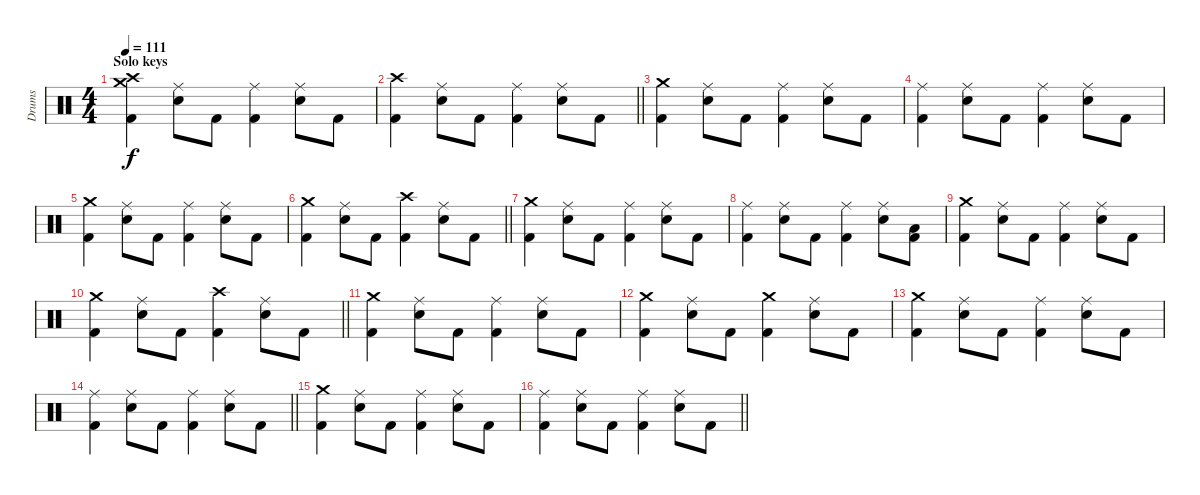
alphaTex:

\track ("Drums" "Drums") {instrument percussion}
\staff {score}
\articulation defaults
\ts (4 4)
\section ("" "Solo keys")
\tempo 111
\clef neutral
\ks c
("Crash medium (hit)" "Crash high (hit)" "Kick (hit) 2").4{dy f} ("Ride (middle)" "Electric Snare (hit)").8 "Kick (hit) 2".8 ("Ride (middle)" "Kick (hit) 2").4 ("Ride (middle)" "Electric Snare (hit)").8 "Kick (hit) 2".8 |
\barLineRight lightlight
("Crash high (hit)" "Kick (hit) 2").4 ("Ride (middle)" "Electric Snare (hit)").8 "Kick (hit) 2".8 ("Ride (middle)" "Kick (hit) 2").4 ("Ride (middle)" "Electric Snare (hit)").8 "Kick (hit) 2".8 |
("Crash medium (hit)" "Kick (hit) 2").4 ("Ride (middle)" "Electric Snare (hit)").8 "Kick (hit) 2".8 ("Ride (middle)" "Kick (hit) 2").4 ("Ride (middle)" "Electric Snare (hit)").8 "Kick (hit) 2".8 |
("Ride (middle)" "Kick (hit) 2").4 ("Ride (middle)" "Electric Snare (hit)").8 "Kick (hit) 2".8 ("Ride (middle)" "Kick (hit) 2").4 ("Ride (middle)" "Electric Snare (hit)").8 "Kick (hit) 2".8 |
("Crash medium (hit)" "Kick (hit) 2").4 ("Ride (middle)" "Electric Snare (hit)").8 "Kick (hit) 2".8 ("Ride (middle)" "Kick (hit) 2").4 ("Ride (middle)" "Electric Snare (hit)").8 "Kick (hit) 2".8 |
\barLineRight lightlight
("Crash medium (hit)" "Kick (hit) 2").4 ("Ride (middle)" "Electric Snare (hit)").8 "Kick (hit) 2".8 ("Crash high (hit)" "Kick (hit) 2").4 ("Ride (middle)" "Electric Snare (hit)").8 "Kick (hit) 2".8 |
("Crash medium (hit)" "Kick (hit) 2").4 ("Ride (middle)" "Electric Snare (hit)").8 "Kick (hit) 2".8 ("Ride (middle)" "Kick (hit) 2").4 ("Ride (middle)" "Electric Snare (hit)").8 "Kick (hit) 2".8 |
("Ride (middle)" "Kick (hit) 2").4 ("Ride (middle)" "Electric Snare (hit)").8 "Kick (hit) 2".8 ("Ride (middle)" "Kick (hit) 2").4 ("Ride (middle)" "Electric Snare (hit)").8 ("Low Tom (hit)" "Kick (hit) 2").8 |
("Crash medium (hit)" "Kick (hit) 2").4 ("Ride (middle)" "Electric Snare (hit)").8 "Kick (hit) 2".8 ("Ride (middle)" "Kick (hit) 2").4 ("Ride (middle)" "Electric Snare (hit)").8 "Kick (hit) 2".8 |
\barLineRight lightlight
("Crash medium (hit)" "Kick (hit) 2").4 ("Ride (middle)" "Electric Snare (hit)").8 "Kick (hit) 2".8 ("Crash high (hit)" "Kick (hit) 2").4 ("Ride (middle)" "Electric Snare (hit)").8 "Kick (hit) 2".8 |
("Crash medium (hit)" "Kick (hit) 2").4 ("Ride (middle)" "Electric Snare (hit)").8 "Kick (hit) 2".8 ("Ride (middle)" "Kick (hit) 2").4 ("Ride (middle)" "Electric Snare (hit)").8 "Kick (hit) 2".8 |
("Crash medium (hit)" "Kick (hit) 2").4 ("Ride (middle)" "Electric Snare (hit)").8 "Kick (hit) 2".8 ("Crash medium (hit)" "Kick (hit) 2").4 ("Ride (middle)" "Electric Snare (hit)").8 "Kick (hit) 2".8 |
("Crash medium (hit)" "Kick (hit) 2").4 ("Ride (middle)" "Electric Snare (hit)").8 "Kick (hit) 2".8 ("Ride (middle)" "Kick (hit) 2").4 ("Ride (middle)" "Electric Snare (hit)").8 "Kick (hit) 2".8 |
\barLineRight lightlight
("Ride (middle)" "Kick (hit) 2").4 ("Ride (middle)" "Electric Snare (hit)").8 "Kick (hit) 2".8 ("Ride (middle)" "Kick (hit) 2").4 ("Ride (middle)" "Electric Snare (hit)").8 "Kick (hit) 2".8 |
("Crash medium (hit)" "Kick (hit) 2").4 ("Ride (middle)" "Electric Snare (hit)").8 "Kick (hit) 2".8 ("Ride (middle)" "Kick (hit) 2").4 ("Ride (middle)" "Electric Snare (hit)").8 "Kick (hit) 2".8 |
\barLineRight lightlight
("Ride (middle)" "Kick (hit) 2").4 ("Ride (middle)" "Electric Snare (hit)").8 "Kick (hit) 2".8 ("Ride (middle)" "Kick (hit) 2").4 ("Ride (middle)" "Electric Snare (hit)").8 "Kick (hit) 2".8
